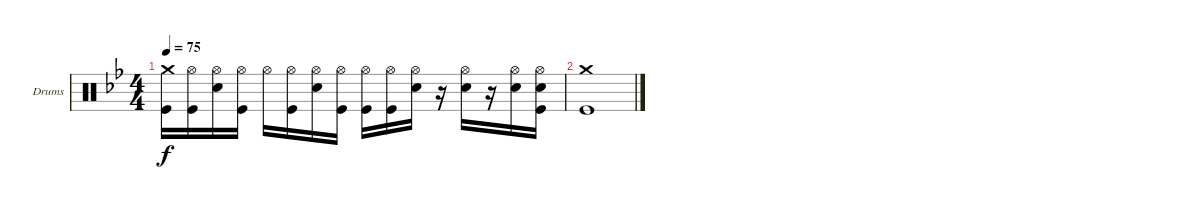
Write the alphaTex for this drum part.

\bracketExtendMode groupsimilarinstruments
\firstSystemTrackNameOrientation horizontal
\otherSystemsTrackNameOrientation horizontal
\track ("Drumkit" "Drums") {instrument percussion}
\staff {score}
\articulation defaults
\ts (4 4)
\tempo 75
\clef neutral
\ks bb
("Crash medium (hit)" "Kick (hit)").16{dy f} ("Hi-Hat (open)" "Kick (hit)").16 ("Hi-Hat (open)" "Snare (hit) 2").16 ("Hi-Hat (open)" "Kick (hit)").16 "Hi-Hat (open)".16 ("Hi-Hat (open)" "Kick (hit)").16 ("Hi-Hat (open)" "Snare (hit) 2").16 ("Hi-Hat (open)" "Kick (hit)").16 ("Hi-Hat (open)" "Kick (hit)").16 ("Hi-Hat (open)" "Kick (hit)").16 ("Hi-Hat (open)" "Snare (hit) 2").16 r.16 ("Hi-Hat (open)" "Snare (hit) 2").16 r.16 ("Hi-Hat (open)" "Snare (hit) 2").16 ("Hi-Hat (open)" "Snare (hit) 2" "Kick (hit)").16 |
("Crash medium (hit)" "Kick (hit)").1
